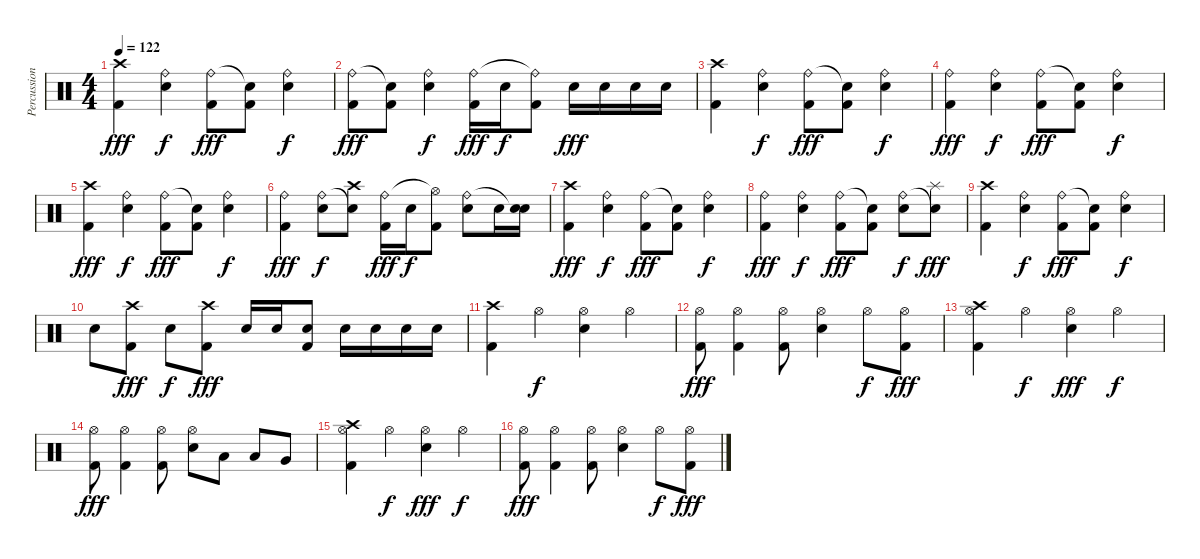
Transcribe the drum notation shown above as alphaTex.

\track ("Percussions" "Percussion") {instrument percussion}
\staff {score}
\articulation defaults
\ts (4 4)
\tempo 122
\clef neutral
\ks c
("Crash high (hit)" "Kick (hit) 2").4{dy fff} ("Snare (hit) 2" "Ride (bell)").4{dy f} ("Kick (hit) 2" "Ride (bell)").8{dy fff} ("Kick (hit) 2" "Snare (hit)"{t}).8 ("Snare (hit) 2" "Ride (bell)").4{dy f} |
("Kick (hit) 2" "Ride (bell)").8{dy fff} ("Kick (hit) 2" "Snare (hit)"{t}).8 ("Snare (hit) 2" "Ride (bell)").4{dy f} ("Kick (hit) 2" "Ride (bell)").16{dy fff} "Snare (hit) 2".16{dy f} ("Kick (hit) 2" "Ride (bell)"{t}).8 "Snare (hit) 2".16{dy fff} "Snare (hit) 2".16 "Snare (hit) 2".16 "Snare (hit) 2".16 |
("Crash high (hit)" "Kick (hit) 2").4 ("Snare (hit) 2" "Ride (bell)").4{dy f} ("Kick (hit) 2" "Ride (bell)").8{dy fff} ("Kick (hit) 2" "Snare (hit)"{t}).8 ("Snare (hit) 2" "Ride (bell)").4{dy f} |
("Kick (hit) 2" "Ride (bell)").4{dy fff} ("Snare (hit) 2" "Ride (bell)").4{dy f} ("Kick (hit) 2" "Ride (bell)").8{dy fff} ("Kick (hit) 2" "Snare (hit)"{t}).8 ("Snare (hit) 2" "Ride (bell)").4{dy f} |
("Crash high (hit)" "Kick (hit) 2").4{dy fff} ("Snare (hit) 2" "Ride (bell)").4{dy f} ("Kick (hit) 2" "Ride (bell)").8{dy fff} ("Kick (hit) 2" "Snare (hit)"{t}).8 ("Snare (hit) 2" "Ride (bell)").4{dy f} |
("Kick (hit) 2" "Ride (bell)").4{dy fff} ("Snare (hit) 2" "Ride (bell)").8{dy f} ("Crash high (hit)" "Snare (hit)"{t}).8 ("Kick (hit) 2" "Ride (bell)").16{dy fff} "Snare (hit) 2".16{dy f} ("Kick (hit) 2" "Hi-Hat (open)"{t}).8 ("Snare (hit) 2" "Ride (bell)").8 "Snare (hit) 2".16 ("Snare (hit) 2" "Snare (hit)"{t}).16 |
("Crash high (hit)" "Kick (hit) 2").4{dy fff} ("Snare (hit) 2" "Ride (bell)").4{dy f} ("Kick (hit) 2" "Ride (bell)").8{dy fff} ("Kick (hit) 2" "Snare (hit)"{t}).8 ("Snare (hit) 2" "Ride (bell)").4{dy f} |
("Kick (hit) 2" "Ride (bell)").4{dy fff} ("Snare (hit) 2" "Ride (bell)").4{dy f} ("Kick (hit) 2" "Ride (bell)").8{dy fff} ("Kick (hit) 2" "Snare (hit)"{t}).8 ("Snare (hit) 2" "Ride (bell)").8{dy f} ("Splash (hit)" "Snare (hit)"{t}).8{dy fff} |
("Crash high (hit)" "Kick (hit) 2").4 ("Snare (hit) 2" "Ride (bell)").4{dy f} ("Kick (hit) 2" "Ride (bell)").8{dy fff} ("Kick (hit) 2" "Snare (hit)"{t}).8 ("Snare (hit) 2" "Ride (bell)").4{dy f} |
"Snare (hit) 2".8 ("Crash high (hit)" "Kick (hit) 2").8{dy fff} "Snare (hit) 2".8{dy f} ("Crash high (hit)" "Kick (hit) 2").8{dy fff} "Snare (hit) 2".16 "Snare (hit) 2".16 ("Snare (hit) 2" "Kick (hit) 2").8 "Snare (hit) 2".16 "Snare (hit) 2".16 "Snare (hit) 2".16 "Snare (hit) 2".16 |
("Crash high (hit)" "Kick (hit) 2").4 "Hi-Hat (open)".4{dy f} ("Snare (hit) 2" "Hi-Hat (open)").4 "Hi-Hat (open)".4 |
("Kick (hit) 2" "Hi-Hat (open)").8{dy fff} ("Kick (hit) 2" "Hi-Hat (open)").4 ("Kick (hit) 2" "Hi-Hat (open)").8 ("Snare (hit) 2" "Hi-Hat (open)").4 "Hi-Hat (open)".8{dy f} ("Kick (hit) 2" "Hi-Hat (open)").8{dy fff} |
("Crash high (hit)" "Kick (hit) 2" "Hi-Hat (open)").4 "Hi-Hat (open)".4{dy f} ("Snare (hit) 2" "Hi-Hat (open)").4{dy fff} "Hi-Hat (open)".4{dy f} |
("Kick (hit) 2" "Hi-Hat (open)").8{dy fff} ("Kick (hit) 2" "Hi-Hat (open)").4 ("Kick (hit) 2" "Hi-Hat (open)").8 ("Snare (hit) 2" "Hi-Hat (open)").8 "Low Tom (hit)".8 "Low Tom (hit)".8 "Very Low Tom (hit)".8 |
("Crash high (hit)" "Kick (hit) 2" "Hi-Hat (open)").4 "Hi-Hat (open)".4{dy f} ("Snare (hit) 2" "Hi-Hat (open)").4{dy fff} "Hi-Hat (open)".4{dy f} |
("Kick (hit) 2" "Hi-Hat (open)").8{dy fff} ("Kick (hit) 2" "Hi-Hat (open)").4 ("Kick (hit) 2" "Hi-Hat (open)").8 ("Snare (hit) 2" "Hi-Hat (open)").4 "Hi-Hat (open)".8{dy f} ("Kick (hit) 2" "Hi-Hat (open)").8{dy fff}
